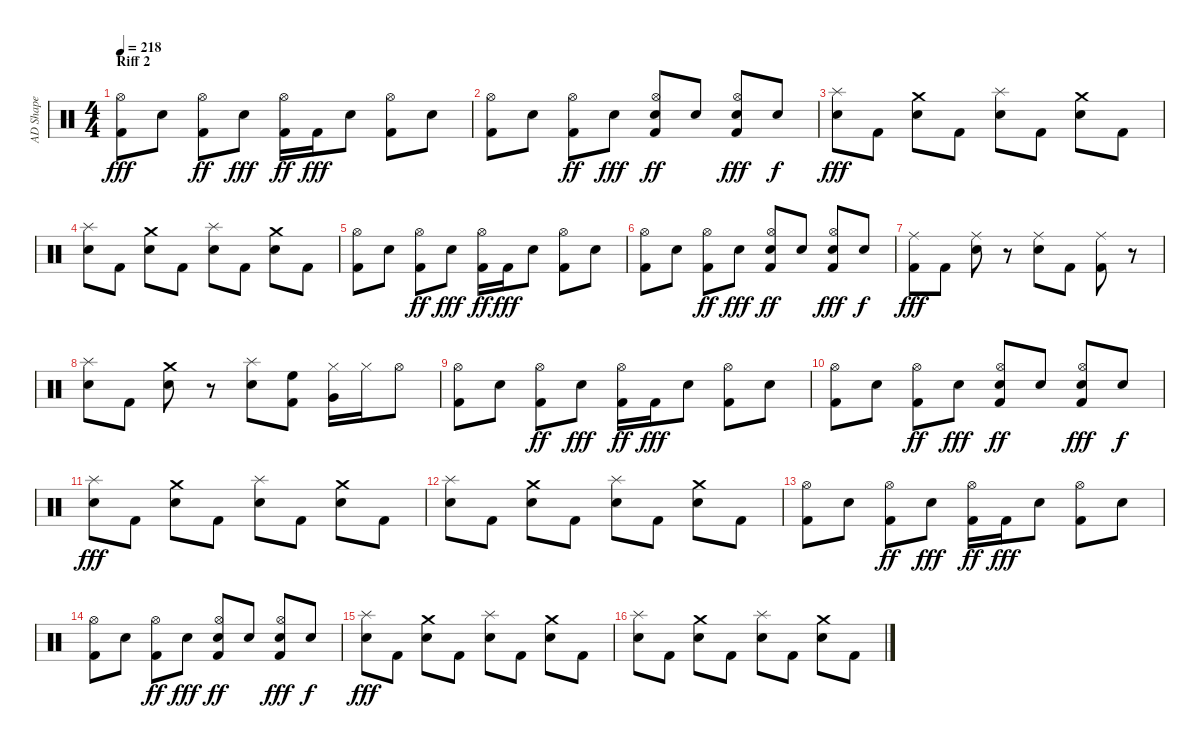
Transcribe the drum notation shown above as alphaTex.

\track ("AD Shape" "AD Shape") {instrument percussion}
\staff {score}
\articulation defaults
\ts (4 4)
\section ("" "Riff 2")
\tempo 218
\clef neutral
\ks c
("Kick (hit) 2" "Hi-Hat (open)").8{dy fff} "Snare (hit) 2".8 ("Kick (hit) 2" "Hi-Hat (open)").8{dy ff} "Snare (hit) 2".8{dy fff} ("Kick (hit) 2" "Hi-Hat (open)").16{dy ff} "Kick (hit) 2".16{dy fff} "Snare (hit) 2".8 ("Kick (hit) 2" "Hi-Hat (open)").8 "Snare (hit) 2".8 |
("Kick (hit) 2" "Hi-Hat (open)").8 "Snare (hit) 2".8 ("Kick (hit) 2" "Hi-Hat (open)").8{dy ff} "Snare (hit) 2".8{dy fff} ("Kick (hit) 2" "Snare (hit) 2" "Hi-Hat (open)").8{dy ff} "Snare (hit) 2".8 ("Kick (hit) 2" "Snare (hit) 2" "Hi-Hat (open)").8{dy fff} "Snare (hit) 2".8{dy f} |
("Snare (hit) 2" "Splash (hit)").8{dy fff} "Kick (hit) 2".8 ("Snare (hit) 2" "Crash medium (hit)").8 "Kick (hit) 2".8 ("Snare (hit) 2" "Splash (hit)").8 "Kick (hit) 2".8 ("Snare (hit) 2" "Crash medium (hit)").8 "Kick (hit) 2".8 |
("Snare (hit) 2" "Splash (hit)").8 "Kick (hit) 2".8 ("Snare (hit) 2" "Crash medium (hit)").8 "Kick (hit) 2".8 ("Snare (hit) 2" "Splash (hit)").8 "Kick (hit) 2".8 ("Snare (hit) 2" "Crash medium (hit)").8 "Kick (hit) 2".8 |
("Kick (hit) 2" "Hi-Hat (open)").8 "Snare (hit) 2".8 ("Kick (hit) 2" "Hi-Hat (open)").8{dy ff} "Snare (hit) 2".8{dy fff} ("Kick (hit) 2" "Hi-Hat (open)").16{dy ff} "Kick (hit) 2".16{dy fff} "Snare (hit) 2".8 ("Kick (hit) 2" "Hi-Hat (open)").8 "Snare (hit) 2".8 |
("Kick (hit) 2" "Hi-Hat (open)").8 "Snare (hit) 2".8 ("Kick (hit) 2" "Hi-Hat (open)").8{dy ff} "Snare (hit) 2".8{dy fff} ("Kick (hit) 2" "Snare (hit) 2" "Hi-Hat (open)").8{dy ff} "Snare (hit) 2".8 ("Kick (hit) 2" "Snare (hit) 2" "Hi-Hat (open)").8{dy fff} "Snare (hit) 2".8{dy f} |
("Kick (hit) 2" "Ride (middle)").8{dy fff} "Kick (hit) 2".8 ("Snare (hit) 2" "Ride (middle)").8 r.8 ("Snare (hit) 2" "Ride (middle)").8 "Kick (hit) 2".8 ("Kick (hit) 2" "Ride (middle)").8 r.8 |
("Snare (hit) 2" "Splash (hit)").8 "Kick (hit) 2".8 ("Snare (hit) 2" "Crash medium (hit)").8 r.8 ("Snare (hit) 2" "Splash (hit)").8 ("Kick (hit) 2" "High Floor Tom (hit)").8 ("Hi-Hat (closed)" "Very Low Tom (hit)").16 "Hi-Hat (closed)".16 "Hi-Hat (open)".8 |
("Kick (hit) 2" "Hi-Hat (open)").8 "Snare (hit) 2".8 ("Kick (hit) 2" "Hi-Hat (open)").8{dy ff} "Snare (hit) 2".8{dy fff} ("Kick (hit) 2" "Hi-Hat (open)").16{dy ff} "Kick (hit) 2".16{dy fff} "Snare (hit) 2".8 ("Kick (hit) 2" "Hi-Hat (open)").8 "Snare (hit) 2".8 |
("Kick (hit) 2" "Hi-Hat (open)").8 "Snare (hit) 2".8 ("Kick (hit) 2" "Hi-Hat (open)").8{dy ff} "Snare (hit) 2".8{dy fff} ("Kick (hit) 2" "Snare (hit) 2" "Hi-Hat (open)").8{dy ff} "Snare (hit) 2".8 ("Kick (hit) 2" "Snare (hit) 2" "Hi-Hat (open)").8{dy fff} "Snare (hit) 2".8{dy f} |
("Snare (hit) 2" "Splash (hit)").8{dy fff} "Kick (hit) 2".8 ("Snare (hit) 2" "Crash medium (hit)").8 "Kick (hit) 2".8 ("Snare (hit) 2" "Splash (hit)").8 "Kick (hit) 2".8 ("Snare (hit) 2" "Crash medium (hit)").8 "Kick (hit) 2".8 |
("Snare (hit) 2" "Splash (hit)").8 "Kick (hit) 2".8 ("Snare (hit) 2" "Crash medium (hit)").8 "Kick (hit) 2".8 ("Snare (hit) 2" "Splash (hit)").8 "Kick (hit) 2".8 ("Snare (hit) 2" "Crash medium (hit)").8 "Kick (hit) 2".8 |
("Kick (hit) 2" "Hi-Hat (open)").8 "Snare (hit) 2".8 ("Kick (hit) 2" "Hi-Hat (open)").8{dy ff} "Snare (hit) 2".8{dy fff} ("Kick (hit) 2" "Hi-Hat (open)").16{dy ff} "Kick (hit) 2".16{dy fff} "Snare (hit) 2".8 ("Kick (hit) 2" "Hi-Hat (open)").8 "Snare (hit) 2".8 |
("Kick (hit) 2" "Hi-Hat (open)").8 "Snare (hit) 2".8 ("Kick (hit) 2" "Hi-Hat (open)").8{dy ff} "Snare (hit) 2".8{dy fff} ("Kick (hit) 2" "Snare (hit) 2" "Hi-Hat (open)").8{dy ff} "Snare (hit) 2".8 ("Kick (hit) 2" "Snare (hit) 2" "Hi-Hat (open)").8{dy fff} "Snare (hit) 2".8{dy f} |
("Snare (hit) 2" "Splash (hit)").8{dy fff} "Kick (hit) 2".8 ("Snare (hit) 2" "Crash medium (hit)").8 "Kick (hit) 2".8 ("Snare (hit) 2" "Splash (hit)").8 "Kick (hit) 2".8 ("Snare (hit) 2" "Crash medium (hit)").8 "Kick (hit) 2".8 |
("Snare (hit) 2" "Splash (hit)").8 "Kick (hit) 2".8 ("Snare (hit) 2" "Crash medium (hit)").8 "Kick (hit) 2".8 ("Snare (hit) 2" "Splash (hit)").8 "Kick (hit) 2".8 ("Snare (hit) 2" "Crash medium (hit)").8 "Kick (hit) 2".8
